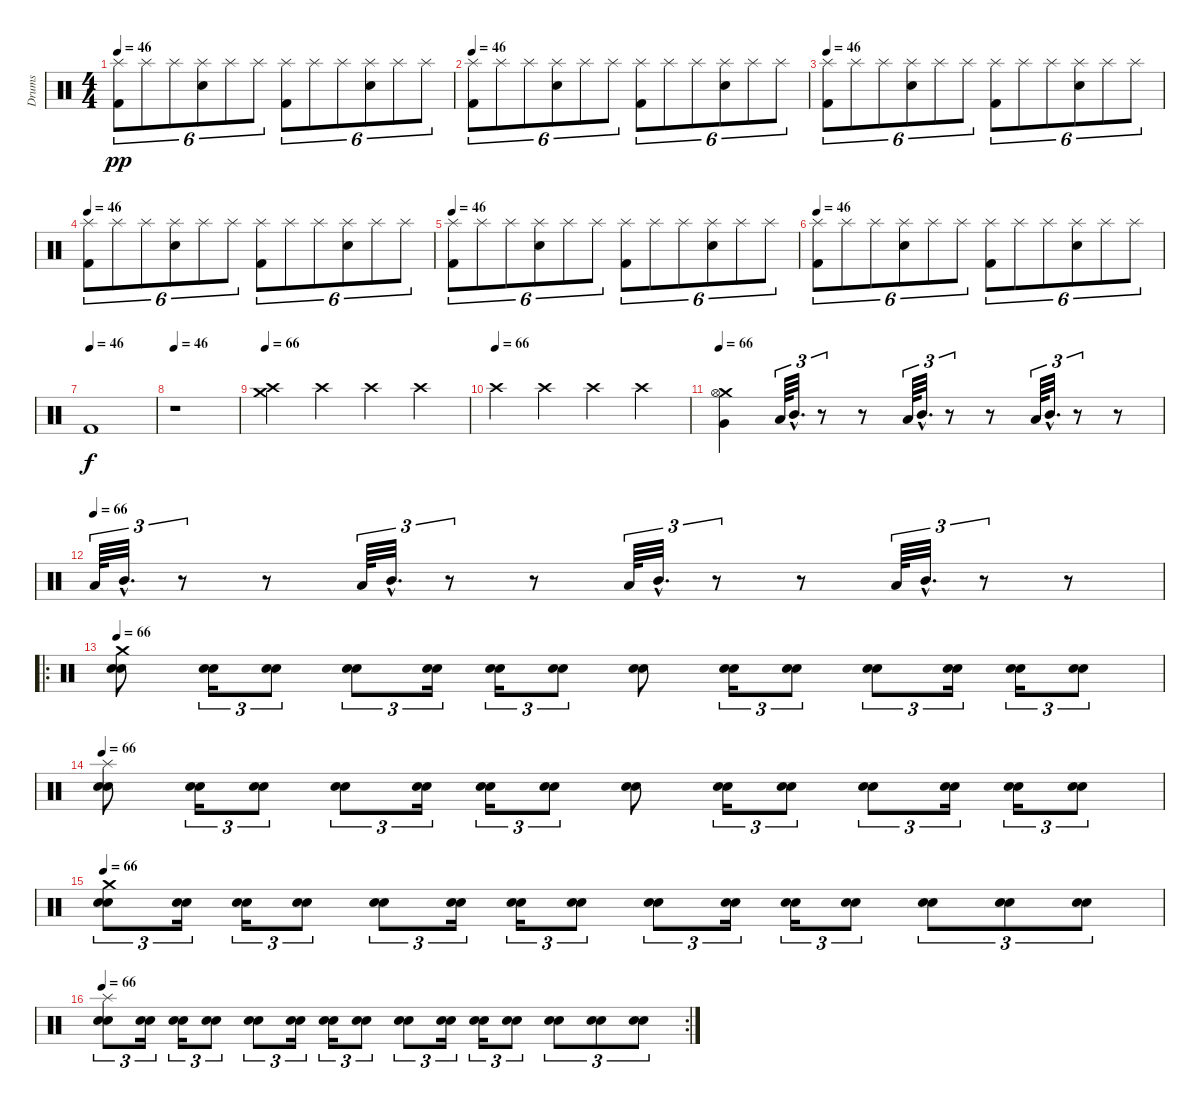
\track ("Drums" "Drums") {instrument percussion}
\staff {score}
\articulation defaults
\ts (4 4)
\tempo 46
\clef neutral
\ks c
("Splash (hit)" "Kick (hit) 2").8{tu (6 4) dy pp} "Splash (hit)".8{tu (6 4)} "Splash (hit)".8{tu (6 4)} ("Splash (hit)" "Snare (hit) 2").8{tu (6 4)} "Splash (hit)".8{tu (6 4)} "Splash (hit)".8{tu (6 4)} ("Splash (hit)" "Kick (hit) 2").8{tu (6 4)} "Splash (hit)".8{tu (6 4)} "Splash (hit)".8{tu (6 4)} ("Splash (hit)" "Snare (hit) 2").8{tu (6 4)} "Splash (hit)".8{tu (6 4)} "Splash (hit)".8{tu (6 4)} |
\tempo 46
("Splash (hit)" "Kick (hit) 2").8{tu (6 4)} "Splash (hit)".8{tu (6 4)} "Splash (hit)".8{tu (6 4)} ("Splash (hit)" "Snare (hit) 2").8{tu (6 4)} "Splash (hit)".8{tu (6 4)} "Splash (hit)".8{tu (6 4)} ("Splash (hit)" "Kick (hit) 2").8{tu (6 4)} "Splash (hit)".8{tu (6 4)} "Splash (hit)".8{tu (6 4)} ("Splash (hit)" "Snare (hit) 2").8{tu (6 4)} "Splash (hit)".8{tu (6 4)} "Splash (hit)".8{tu (6 4)} |
\tempo 46
("Splash (hit)" "Kick (hit) 2").8{tu (6 4)} "Splash (hit)".8{tu (6 4)} "Splash (hit)".8{tu (6 4)} ("Splash (hit)" "Snare (hit) 2").8{tu (6 4)} "Splash (hit)".8{tu (6 4)} "Splash (hit)".8{tu (6 4)} ("Splash (hit)" "Kick (hit) 2").8{tu (6 4)} "Splash (hit)".8{tu (6 4)} "Splash (hit)".8{tu (6 4)} ("Splash (hit)" "Snare (hit) 2").8{tu (6 4)} "Splash (hit)".8{tu (6 4)} "Splash (hit)".8{tu (6 4)} |
\tempo 46
("Splash (hit)" "Kick (hit) 2").8{tu (6 4)} "Splash (hit)".8{tu (6 4)} "Splash (hit)".8{tu (6 4)} ("Splash (hit)" "Snare (hit) 2").8{tu (6 4)} "Splash (hit)".8{tu (6 4)} "Splash (hit)".8{tu (6 4)} ("Splash (hit)" "Kick (hit) 2").8{tu (6 4)} "Splash (hit)".8{tu (6 4)} "Splash (hit)".8{tu (6 4)} ("Splash (hit)" "Snare (hit) 2").8{tu (6 4)} "Splash (hit)".8{tu (6 4)} "Splash (hit)".8{tu (6 4)} |
\tempo 46
("Splash (hit)" "Kick (hit) 2").8{tu (6 4)} "Splash (hit)".8{tu (6 4)} "Splash (hit)".8{tu (6 4)} ("Splash (hit)" "Snare (hit) 2").8{tu (6 4)} "Splash (hit)".8{tu (6 4)} "Splash (hit)".8{tu (6 4)} ("Splash (hit)" "Kick (hit) 2").8{tu (6 4)} "Splash (hit)".8{tu (6 4)} "Splash (hit)".8{tu (6 4)} ("Splash (hit)" "Snare (hit) 2").8{tu (6 4)} "Splash (hit)".8{tu (6 4)} "Splash (hit)".8{tu (6 4)} |
\tempo 46
("Splash (hit)" "Kick (hit) 2").8{tu (6 4)} "Splash (hit)".8{tu (6 4)} "Splash (hit)".8{tu (6 4)} ("Splash (hit)" "Snare (hit) 2").8{tu (6 4)} "Splash (hit)".8{tu (6 4)} "Splash (hit)".8{tu (6 4)} ("Splash (hit)" "Kick (hit) 2").8{tu (6 4)} "Splash (hit)".8{tu (6 4)} "Splash (hit)".8{tu (6 4)} ("Splash (hit)" "Snare (hit) 2").8{tu (6 4)} "Splash (hit)".8{tu (6 4)} "Splash (hit)".8{tu (6 4)} |
\tempo (46)
"Kick (hit) 2".1{dy f} |
\tempo 46
r.1 |
\tempo 66
("Crash medium (hit)" "Crash high (hit)").4 "Crash high (hit)".4 "Crash high (hit)".4 "Crash high (hit)".4 |
\tempo (66)
"Crash high (hit)".4 "Crash high (hit)".4 "Crash high (hit)".4 "Crash high (hit)".4 |
\tempo 66
("Crash medium (hit)" "Very Low Tom (hit)" "Hi-Hat (open)").4 "Low Tom (hit)".64{tu (3 2) balance 13} "Mid Tom (hit)"{hac}.32{d tu (3 2) balance 5} r.8{tu (3 2)} r.8 "Low Tom (hit)".64{tu (3 2) balance 13} "Mid Tom (hit)"{hac}.32{d tu (3 2) balance 5} r.8{tu (3 2)} r.8 "Low Tom (hit)".64{tu (3 2) balance 13} "Mid Tom (hit)"{hac}.32{d tu (3 2) balance 5} r.8{tu (3 2)} r.8 |
\tempo (66)
"Low Tom (hit)".64{tu (3 2) balance 13} "Mid Tom (hit)"{hac}.32{d tu (3 2) balance 5} r.8{tu (3 2)} r.8 "Low Tom (hit)".64{tu (3 2) balance 13} "Mid Tom (hit)"{hac}.32{d tu (3 2) balance 5} r.8{tu (3 2)} r.8 "Low Tom (hit)".64{tu (3 2) balance 13} "Mid Tom (hit)"{hac}.32{d tu (3 2) balance 5} r.8{tu (3 2)} r.8 "Low Tom (hit)".64{tu (3 2) balance 13} "Mid Tom (hit)"{hac}.32{d tu (3 2) balance 5} r.8{tu (3 2)} r.8{volume 10 balance 8} |
\ro
\tempo 66
("Crash medium (hit)" "Snare (hit) 2" "Snare (hit) 2").8{bd 30} ("Snare (hit) 2" "Snare (hit) 2").16{tu (3 2) bd 30} ("Snare (hit) 2" "Snare (hit) 2").8{tu (3 2) bd 30} ("Snare (hit) 2" "Snare (hit) 2").8{tu (3 2) bd 30} ("Snare (hit) 2" "Snare (hit) 2").16{tu (3 2) bd 30} ("Snare (hit) 2" "Snare (hit) 2").16{tu (3 2) bd 30} ("Snare (hit) 2" "Snare (hit) 2").8{tu (3 2) bd 30} ("Snare (hit) 2" "Snare (hit) 2").8{bd 30} ("Snare (hit) 2" "Snare (hit) 2").16{tu (3 2) bd 30} ("Snare (hit) 2" "Snare (hit) 2").8{tu (3 2) bd 30} ("Snare (hit) 2" "Snare (hit) 2").8{tu (3 2) bd 30} ("Snare (hit) 2" "Snare (hit) 2").16{tu (3 2) bd 30} ("Snare (hit) 2" "Snare (hit) 2").16{tu (3 2) bd 30} ("Snare (hit) 2" "Snare (hit) 2").8{tu (3 2) bd 30} |
\tempo 66
("Splash (hit)" "Snare (hit) 2" "Snare (hit) 2").8{bd 30} ("Snare (hit) 2" "Snare (hit) 2").16{tu (3 2) bd 30} ("Snare (hit) 2" "Snare (hit) 2").8{tu (3 2) bd 30} ("Snare (hit) 2" "Snare (hit) 2").8{tu (3 2) bd 30} ("Snare (hit) 2" "Snare (hit) 2").16{tu (3 2) bd 30} ("Snare (hit) 2" "Snare (hit) 2").16{tu (3 2) bd 30} ("Snare (hit) 2" "Snare (hit) 2").8{tu (3 2) bd 30} ("Snare (hit) 2" "Snare (hit) 2").8{bd 30} ("Snare (hit) 2" "Snare (hit) 2").16{tu (3 2) bd 30} ("Snare (hit) 2" "Snare (hit) 2").8{tu (3 2) bd 30} ("Snare (hit) 2" "Snare (hit) 2").8{tu (3 2) bd 30} ("Snare (hit) 2" "Snare (hit) 2").16{tu (3 2) bd 30} ("Snare (hit) 2" "Snare (hit) 2").16{tu (3 2) bd 30} ("Snare (hit) 2" "Snare (hit) 2").8{tu (3 2) bd 30} |
\tempo 66
("Crash medium (hit)" "Snare (hit) 2" "Snare (hit) 2").8{tu (3 2) bd 30} ("Snare (hit) 2" "Snare (hit) 2").16{tu (3 2) bd 30} ("Snare (hit) 2" "Snare (hit) 2").16{tu (3 2) bd 30} ("Snare (hit) 2" "Snare (hit) 2").8{tu (3 2) bd 30} ("Snare (hit) 2" "Snare (hit) 2").8{tu (3 2) bd 30} ("Snare (hit) 2" "Snare (hit) 2").16{tu (3 2) bd 30} ("Snare (hit) 2" "Snare (hit) 2").16{tu (3 2) bd 30} ("Snare (hit) 2" "Snare (hit) 2").8{tu (3 2) bd 30} ("Snare (hit) 2" "Snare (hit) 2").8{tu (3 2) bd 30} ("Snare (hit) 2" "Snare (hit) 2").16{tu (3 2) bd 30} ("Snare (hit) 2" "Snare (hit) 2").16{tu (3 2) bd 30} ("Snare (hit) 2" "Snare (hit) 2").8{tu (3 2) bd 30} ("Snare (hit) 2" "Snare (hit) 2").8{tu (3 2) bd 30} ("Snare (hit) 2" "Snare (hit) 2").8{tu (3 2) bd 30} ("Snare (hit) 2" "Snare (hit) 2").8{tu (3 2) bd 30} |
\rc 2
\tempo 66
("Splash (hit)" "Snare (hit) 2" "Snare (hit) 2").8{tu (3 2) bd 30} ("Snare (hit) 2" "Snare (hit) 2").16{tu (3 2) bd 30} ("Snare (hit) 2" "Snare (hit) 2").16{tu (3 2) bd 30} ("Snare (hit) 2" "Snare (hit) 2").8{tu (3 2) bd 30} ("Snare (hit) 2" "Snare (hit) 2").8{tu (3 2) bd 30} ("Snare (hit) 2" "Snare (hit) 2").16{tu (3 2) bd 30} ("Snare (hit) 2" "Snare (hit) 2").16{tu (3 2) bd 30} ("Snare (hit) 2" "Snare (hit) 2").8{tu (3 2) bd 30} ("Snare (hit) 2" "Snare (hit) 2").8{tu (3 2) bd 30} ("Snare (hit) 2" "Snare (hit) 2").16{tu (3 2) bd 30} ("Snare (hit) 2" "Snare (hit) 2").16{tu (3 2) bd 30} ("Snare (hit) 2" "Snare (hit) 2").8{tu (3 2) bd 30} ("Snare (hit) 2" "Snare (hit) 2").8{tu (3 2) bd 30} ("Snare (hit) 2" "Snare (hit) 2").8{tu (3 2) bd 30} ("Snare (hit) 2" "Snare (hit) 2").8{tu (3 2) bd 30}
